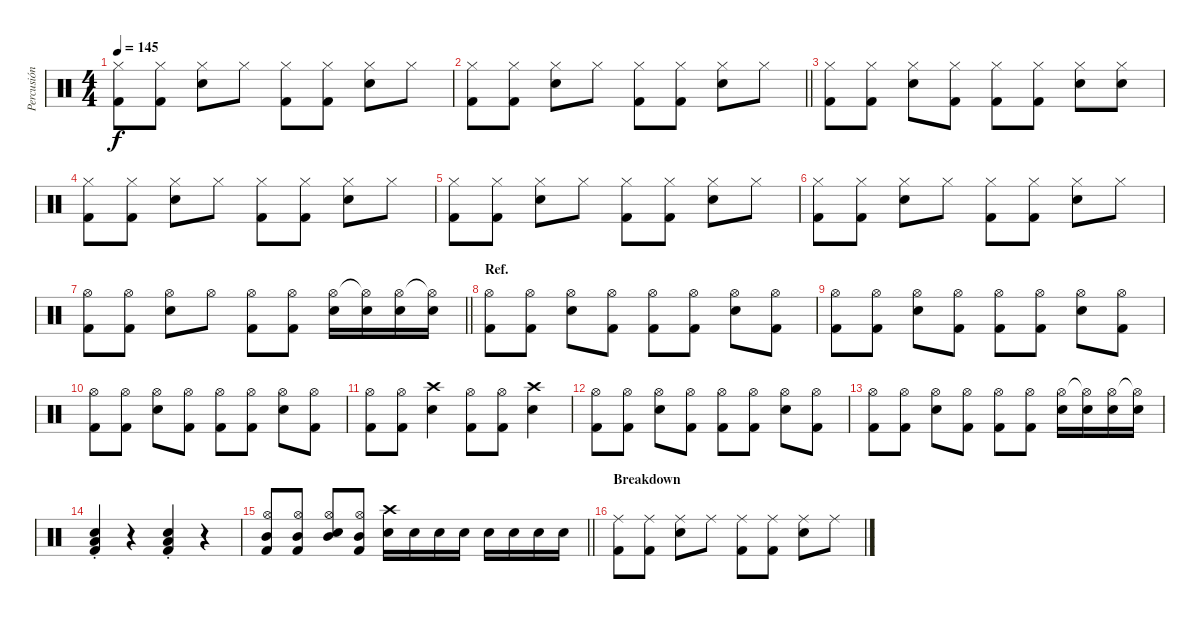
\track ("Percusión" "Percusión") {instrument percussion}
\staff {score}
\articulation defaults
\ts (4 4)
\tempo 145
\clef neutral
\ks c
("Hi-Hat (closed)" "Kick (hit) 2").8{dy f} ("Hi-Hat (closed)" "Kick (hit) 2").8 ("Hi-Hat (closed)" "Snare (hit) 2").8 "Hi-Hat (closed)".8 ("Hi-Hat (closed)" "Kick (hit) 2").8 ("Hi-Hat (closed)" "Kick (hit) 2").8 ("Hi-Hat (closed)" "Snare (hit) 2").8 "Hi-Hat (closed)".8 |
\barLineRight lightlight
("Hi-Hat (closed)" "Kick (hit) 2").8 ("Hi-Hat (closed)" "Kick (hit) 2").8 ("Hi-Hat (closed)" "Snare (hit) 2").8 "Hi-Hat (closed)".8 ("Hi-Hat (closed)" "Kick (hit) 2").8 ("Hi-Hat (closed)" "Kick (hit) 2").8 ("Hi-Hat (closed)" "Snare (hit) 2").8 "Hi-Hat (closed)".8 |
("Hi-Hat (closed)" "Kick (hit) 2").8 ("Hi-Hat (closed)" "Kick (hit) 2").8 ("Hi-Hat (closed)" "Snare (hit) 2").8 ("Hi-Hat (closed)" "Kick (hit) 2").8 ("Hi-Hat (closed)" "Kick (hit) 2").8 ("Hi-Hat (closed)" "Kick (hit) 2").8 ("Hi-Hat (closed)" "Snare (hit) 2").8 ("Hi-Hat (closed)" "Snare (hit) 2").8 |
("Hi-Hat (closed)" "Kick (hit) 2").8 ("Hi-Hat (closed)" "Kick (hit) 2").8 ("Hi-Hat (closed)" "Snare (hit) 2").8 "Hi-Hat (closed)".8 ("Hi-Hat (closed)" "Kick (hit) 2").8 ("Hi-Hat (closed)" "Kick (hit) 2").8 ("Hi-Hat (closed)" "Snare (hit) 2").8 "Hi-Hat (closed)".8 |
("Hi-Hat (closed)" "Kick (hit) 2").8 ("Hi-Hat (closed)" "Kick (hit) 2").8 ("Hi-Hat (closed)" "Snare (hit) 2").8 "Hi-Hat (closed)".8 ("Hi-Hat (closed)" "Kick (hit) 2").8 ("Hi-Hat (closed)" "Kick (hit) 2").8 ("Hi-Hat (closed)" "Snare (hit) 2").8 "Hi-Hat (closed)".8 |
("Hi-Hat (closed)" "Kick (hit) 2").8 ("Hi-Hat (closed)" "Kick (hit) 2").8 ("Hi-Hat (closed)" "Snare (hit) 2").8 "Hi-Hat (closed)".8 ("Hi-Hat (closed)" "Kick (hit) 2").8 ("Hi-Hat (closed)" "Kick (hit) 2").8 ("Hi-Hat (closed)" "Snare (hit) 2").8 "Hi-Hat (closed)".8 |
\barLineRight lightlight
("Hi-Hat (open)" "Kick (hit) 2").8 ("Hi-Hat (open)" "Kick (hit) 2").8 ("Hi-Hat (open)" "Snare (hit) 2").8 "Hi-Hat (open)".8 ("Hi-Hat (open)" "Kick (hit) 2").8 ("Hi-Hat (open)" "Kick (hit) 2").8 ("Hi-Hat (open)" "Snare (hit) 2").16 ("Hi-Hat (open)"{t} "Snare (hit) 2").16 ("Hi-Hat (open)" "Snare (hit) 2").16 ("Hi-Hat (open)"{t} "Snare (hit) 2").16 |
\section ("" "Ref.")
("Hi-Hat (open)" "Kick (hit) 2").8 ("Hi-Hat (open)" "Kick (hit) 2").8 ("Hi-Hat (open)" "Snare (hit) 2").8 ("Hi-Hat (open)" "Kick (hit) 2").8 ("Hi-Hat (open)" "Kick (hit) 2").8 ("Hi-Hat (open)" "Kick (hit) 2").8 ("Hi-Hat (open)" "Snare (hit) 2").8 ("Hi-Hat (open)" "Kick (hit) 2").8 |
("Hi-Hat (open)" "Kick (hit) 2").8 ("Hi-Hat (open)" "Kick (hit) 2").8 ("Hi-Hat (open)" "Snare (hit) 2").8 ("Hi-Hat (open)" "Kick (hit) 2").8 ("Hi-Hat (open)" "Kick (hit) 2").8 ("Hi-Hat (open)" "Kick (hit) 2").8 ("Hi-Hat (open)" "Snare (hit) 2").8 ("Hi-Hat (open)" "Kick (hit) 2").8 |
("Hi-Hat (open)" "Kick (hit) 2").8 ("Hi-Hat (open)" "Kick (hit) 2").8 ("Hi-Hat (open)" "Snare (hit) 2").8 ("Hi-Hat (open)" "Kick (hit) 2").8 ("Hi-Hat (open)" "Kick (hit) 2").8 ("Hi-Hat (open)" "Kick (hit) 2").8 ("Hi-Hat (open)" "Snare (hit) 2").8 ("Hi-Hat (open)" "Kick (hit) 2").8 |
("Hi-Hat (open)" "Kick (hit) 2").8 ("Hi-Hat (open)" "Kick (hit) 2").8 ("Crash high (hit)" "Snare (hit) 2").4 ("Hi-Hat (open)" "Kick (hit) 2").8 ("Hi-Hat (open)" "Kick (hit) 2").8 ("Crash high (hit)" "Snare (hit) 2").4 |
("Hi-Hat (open)" "Kick (hit) 2").8 ("Hi-Hat (open)" "Kick (hit) 2").8 ("Hi-Hat (open)" "Snare (hit) 2").8 ("Hi-Hat (open)" "Kick (hit) 2").8 ("Hi-Hat (open)" "Kick (hit) 2").8 ("Hi-Hat (open)" "Kick (hit) 2").8 ("Hi-Hat (open)" "Snare (hit) 2").8 ("Hi-Hat (open)" "Kick (hit) 2").8 |
("Hi-Hat (open)" "Kick (hit) 2").8 ("Hi-Hat (open)" "Kick (hit) 2").8 ("Hi-Hat (open)" "Snare (hit) 2").8 ("Hi-Hat (open)" "Kick (hit) 2").8 ("Hi-Hat (open)" "Kick (hit) 2").8 ("Hi-Hat (open)" "Kick (hit) 2").8 ("Hi-Hat (open)" "Snare (hit) 2").16 ("Hi-Hat (open)"{t} "Snare (hit) 2").16 ("Hi-Hat (open)" "Snare (hit) 2").16 ("Hi-Hat (open)"{t} "Snare (hit) 2").16 |
("Low Tom (hit)"{st} "Snare (hit) 2" "Kick (hit) 2").4 r.4 ("Low Tom (hit)"{st} "Snare (hit) 2" "Kick (hit) 2").4 r.4 |
\barLineRight lightlight
("Hi-Hat (open)" "Mid Tom (hit)" "Kick (hit) 2").8 ("Hi-Hat (open)" "Mid Tom (hit)" "Kick (hit) 2").8 ("Hi-Hat (open)" "Mid Tom (hit)" "Snare (hit) 2").8 ("Hi-Hat (open)" "Mid Tom (hit)" "Kick (hit) 2").8 ("Crash high (hit)" "Snare (hit) 2").16 "Snare (hit) 2".16 "Snare (hit) 2".16 "Snare (hit) 2".16 "Snare (hit) 2".16 "Snare (hit) 2".16 "Snare (hit) 2".16 "Snare (hit) 2".16 |
\section ("" "Breakdown")
("Ride (middle)" "Kick (hit) 2").8 ("Ride (middle)" "Kick (hit) 2").8 ("Ride (middle)" "Snare (hit) 2").8 "Ride (middle)".8 ("Ride (middle)" "Kick (hit) 2").8 ("Ride (middle)" "Kick (hit) 2").8 ("Ride (middle)" "Snare (hit) 2").8 "Ride (middle)".8
